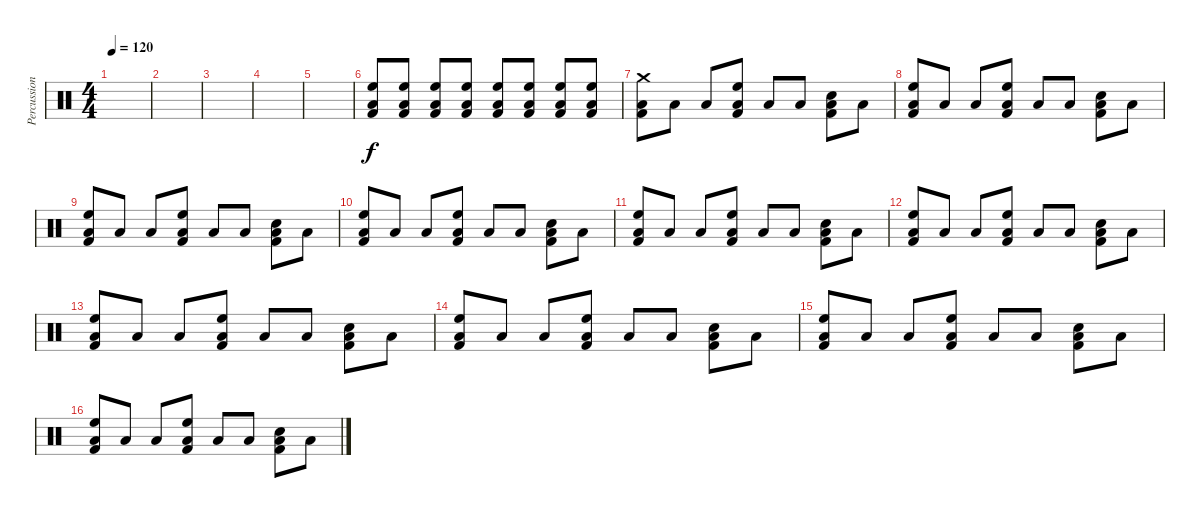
\track ("Percussion" "Percussion") {instrument percussion}
\staff {score}
\articulation defaults
\ts (4 4)
\tempo 120
\clef neutral
\ks c
|
|
|
|
|
("Low Floor Tom (hit)" "High Floor Tom (hit)" "Kick (hit) 2").8 ("Low Floor Tom (hit)" "High Floor Tom (hit)" "Kick (hit) 2").8 ("Low Floor Tom (hit)" "High Floor Tom (hit)" "Kick (hit) 2").8 ("Low Floor Tom (hit)" "High Floor Tom (hit)" "Kick (hit) 2").8 ("Low Floor Tom (hit)" "High Floor Tom (hit)" "Kick (hit) 2").8 ("Low Floor Tom (hit)" "High Floor Tom (hit)" "Kick (hit) 2").8 ("Low Floor Tom (hit)" "High Floor Tom (hit)" "Kick (hit) 2").8 ("Low Floor Tom (hit)" "High Floor Tom (hit)" "Kick (hit) 2").8 |
("Crash medium (hit)" "Low Floor Tom (hit)" "Kick (hit) 2").8 "Low Floor Tom (hit)".8 "Low Floor Tom (hit)".8 ("Low Floor Tom (hit)" "High Floor Tom (hit)" "Kick (hit) 2").8 "Low Floor Tom (hit)".8 "Low Floor Tom (hit)".8 ("Low Floor Tom (hit)" "Electric Snare (hit)" "Kick (hit) 2").8 "Low Floor Tom (hit)".8 |
("Low Floor Tom (hit)" "High Floor Tom (hit)" "Kick (hit) 2").8 "Low Floor Tom (hit)".8 "Low Floor Tom (hit)".8 ("Low Floor Tom (hit)" "High Floor Tom (hit)" "Kick (hit) 2").8 "Low Floor Tom (hit)".8 "Low Floor Tom (hit)".8 ("Low Floor Tom (hit)" "Electric Snare (hit)" "Kick (hit) 2").8 "Low Floor Tom (hit)".8 |
("Low Floor Tom (hit)" "High Floor Tom (hit)" "Kick (hit) 2").8 "Low Floor Tom (hit)".8 "Low Floor Tom (hit)".8 ("Low Floor Tom (hit)" "High Floor Tom (hit)" "Kick (hit) 2").8 "Low Floor Tom (hit)".8 "Low Floor Tom (hit)".8 ("Low Floor Tom (hit)" "Electric Snare (hit)" "Kick (hit) 2").8 "Low Floor Tom (hit)".8 |
("Low Floor Tom (hit)" "High Floor Tom (hit)" "Kick (hit) 2").8 "Low Floor Tom (hit)".8 "Low Floor Tom (hit)".8 ("Low Floor Tom (hit)" "High Floor Tom (hit)" "Kick (hit) 2").8 "Low Floor Tom (hit)".8 "Low Floor Tom (hit)".8 ("Low Floor Tom (hit)" "Electric Snare (hit)" "Kick (hit) 2").8 "Low Floor Tom (hit)".8 |
("Low Floor Tom (hit)" "High Floor Tom (hit)" "Kick (hit) 2").8 "Low Floor Tom (hit)".8 "Low Floor Tom (hit)".8 ("Low Floor Tom (hit)" "High Floor Tom (hit)" "Kick (hit) 2").8 "Low Floor Tom (hit)".8 "Low Floor Tom (hit)".8 ("Low Floor Tom (hit)" "Electric Snare (hit)" "Kick (hit) 2").8 "Low Floor Tom (hit)".8 |
("Low Floor Tom (hit)" "High Floor Tom (hit)" "Kick (hit) 2").8 "Low Floor Tom (hit)".8 "Low Floor Tom (hit)".8 ("Low Floor Tom (hit)" "High Floor Tom (hit)" "Kick (hit) 2").8 "Low Floor Tom (hit)".8 "Low Floor Tom (hit)".8 ("Low Floor Tom (hit)" "Electric Snare (hit)" "Kick (hit) 2").8 "Low Floor Tom (hit)".8 |
("Low Floor Tom (hit)" "High Floor Tom (hit)" "Kick (hit) 2").8 "Low Floor Tom (hit)".8 "Low Floor Tom (hit)".8 ("Low Floor Tom (hit)" "High Floor Tom (hit)" "Kick (hit) 2").8 "Low Floor Tom (hit)".8 "Low Floor Tom (hit)".8 ("Low Floor Tom (hit)" "Electric Snare (hit)" "Kick (hit) 2").8 "Low Floor Tom (hit)".8 |
("Low Floor Tom (hit)" "High Floor Tom (hit)" "Kick (hit) 2").8 "Low Floor Tom (hit)".8 "Low Floor Tom (hit)".8 ("Low Floor Tom (hit)" "High Floor Tom (hit)" "Kick (hit) 2").8 "Low Floor Tom (hit)".8 "Low Floor Tom (hit)".8 ("Low Floor Tom (hit)" "Electric Snare (hit)" "Kick (hit) 2").8 "Low Floor Tom (hit)".8 |
("Low Floor Tom (hit)" "High Floor Tom (hit)" "Kick (hit) 2").8 "Low Floor Tom (hit)".8 "Low Floor Tom (hit)".8 ("Low Floor Tom (hit)" "High Floor Tom (hit)" "Kick (hit) 2").8 "Low Floor Tom (hit)".8 "Low Floor Tom (hit)".8 ("Low Floor Tom (hit)" "Electric Snare (hit)" "Kick (hit) 2").8 "Low Floor Tom (hit)".8 |
("Low Floor Tom (hit)" "High Floor Tom (hit)" "Kick (hit) 2").8 "Low Floor Tom (hit)".8 "Low Floor Tom (hit)".8 ("Low Floor Tom (hit)" "High Floor Tom (hit)" "Kick (hit) 2").8 "Low Floor Tom (hit)".8 "Low Floor Tom (hit)".8 ("Low Floor Tom (hit)" "Electric Snare (hit)" "Kick (hit) 2").8 "Low Floor Tom (hit)".8
